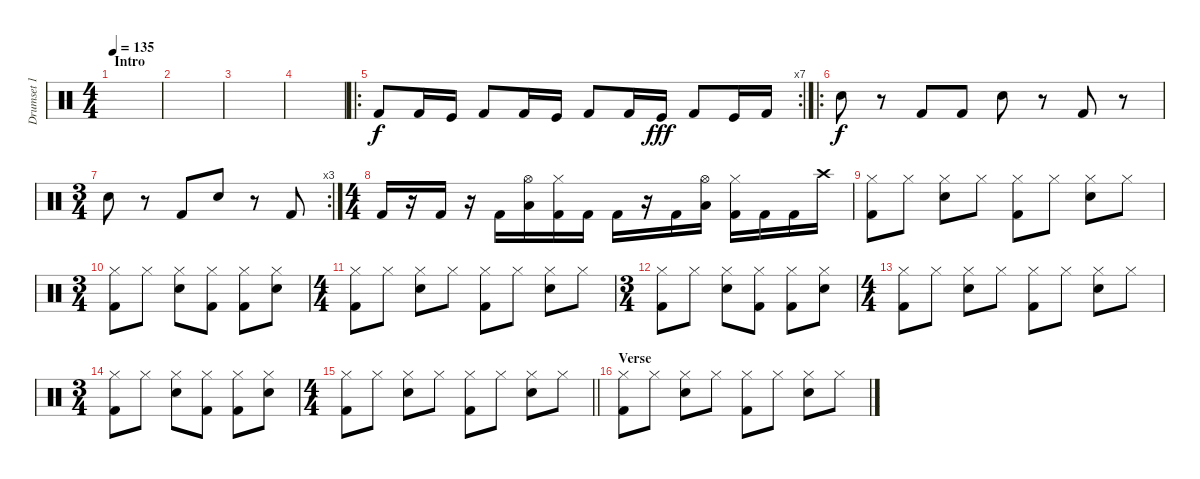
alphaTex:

\track ("Drumset 1" "Drumset 1") {instrument percussion}
\staff {score}
\articulation defaults
\ts (4 4)
\section ("" "Intro")
\tempo 135
\clef neutral
\ks c
|
|
|
|
\ro
\rc 7 "Kick (hit) 2".8 "Kick (hit) 2".16 "Kick (hit)".16 "Kick (hit) 2".8 "Kick (hit) 2".16 "Kick (hit)".16 "Kick (hit) 2".8 "Kick (hit) 2".16 "Kick (hit)".16{dy fff} "Kick (hit) 2".8 "Kick (hit)".16 "Kick (hit) 2".16
|
\ro "Electric Snare (hit)".8{dy f}
r.8 "Kick (hit) 2".8 "Kick (hit) 2".8 "Electric Snare (hit)".8 r.8 "Kick (hit) 2".8 r.8 |
\rc 3
\ts (3 4)
"Electric Snare (hit)".8 r.8 "Kick (hit) 2".8 "Electric Snare (hit)".8 r.8 "Kick (hit) 2".8 |
\ts (4 4)
"Kick (hit) 2".16 r.16 "Kick (hit) 2".16 r.16 "Kick (hit) 2".16 ("Hi-Hat (open)" "Low Floor Tom (hit)").16 ("Hi-Hat (closed)" "Kick (hit) 2").16 "Kick (hit) 2".16 "Kick (hit) 2".16 r.16 "Kick (hit) 2".16 ("Hi-Hat (open)" "Low Floor Tom (hit)").16 ("Hi-Hat (closed)" "Kick (hit) 2").16 "Kick (hit) 2".16 "Kick (hit) 2".16 "Crash high (hit)".16 |
("Hi-Hat (closed)" "Kick (hit) 2").8 "Hi-Hat (closed)".8 ("Hi-Hat (closed)" "Electric Snare (hit)").8 "Hi-Hat (closed)".8 ("Hi-Hat (closed)" "Kick (hit) 2").8 "Hi-Hat (closed)".8 ("Hi-Hat (closed)" "Electric Snare (hit)").8 "Hi-Hat (closed)".8 |
\ts (3 4)
("Hi-Hat (closed)" "Kick (hit) 2").8 "Hi-Hat (closed)".8 ("Hi-Hat (closed)" "Electric Snare (hit)").8 ("Hi-Hat (closed)" "Kick (hit) 2").8 ("Hi-Hat (closed)" "Kick (hit) 2").8 ("Hi-Hat (closed)" "Electric Snare (hit)").8 |
\ts (4 4)
("Hi-Hat (closed)" "Kick (hit) 2").8 "Hi-Hat (closed)".8 ("Hi-Hat (closed)" "Electric Snare (hit)").8 "Hi-Hat (closed)".8 ("Hi-Hat (closed)" "Kick (hit) 2").8 "Hi-Hat (closed)".8 ("Hi-Hat (closed)" "Electric Snare (hit)").8 "Hi-Hat (closed)".8 |
\ts (3 4)
("Hi-Hat (closed)" "Kick (hit) 2").8 "Hi-Hat (closed)".8 ("Hi-Hat (closed)" "Electric Snare (hit)").8 ("Hi-Hat (closed)" "Kick (hit) 2").8 ("Hi-Hat (closed)" "Kick (hit) 2").8 ("Hi-Hat (closed)" "Electric Snare (hit)").8 |
\ts (4 4)
("Hi-Hat (closed)" "Kick (hit) 2").8 "Hi-Hat (closed)".8 ("Hi-Hat (closed)" "Electric Snare (hit)").8 "Hi-Hat (closed)".8 ("Hi-Hat (closed)" "Kick (hit) 2").8 "Hi-Hat (closed)".8 ("Hi-Hat (closed)" "Electric Snare (hit)").8 "Hi-Hat (closed)".8 |
\ts (3 4)
("Hi-Hat (closed)" "Kick (hit) 2").8 "Hi-Hat (closed)".8 ("Hi-Hat (closed)" "Electric Snare (hit)").8 ("Hi-Hat (closed)" "Kick (hit) 2").8 ("Hi-Hat (closed)" "Kick (hit) 2").8 ("Hi-Hat (closed)" "Electric Snare (hit)").8 |
\ts (4 4)
\barLineRight lightlight
("Hi-Hat (closed)" "Kick (hit) 2").8 "Hi-Hat (closed)".8 ("Hi-Hat (closed)" "Electric Snare (hit)").8 "Hi-Hat (closed)".8 ("Hi-Hat (closed)" "Kick (hit) 2").8 "Hi-Hat (closed)".8 ("Hi-Hat (closed)" "Electric Snare (hit)").8 "Hi-Hat (closed)".8 |
\section ("" "Verse")
("Hi-Hat (closed)" "Kick (hit) 2").8 "Hi-Hat (closed)".8 ("Hi-Hat (closed)" "Electric Snare (hit)").8 "Hi-Hat (closed)".8 ("Hi-Hat (closed)" "Kick (hit) 2").8 "Hi-Hat (closed)".8 ("Hi-Hat (closed)" "Electric Snare (hit)").8 "Hi-Hat (closed)".8
